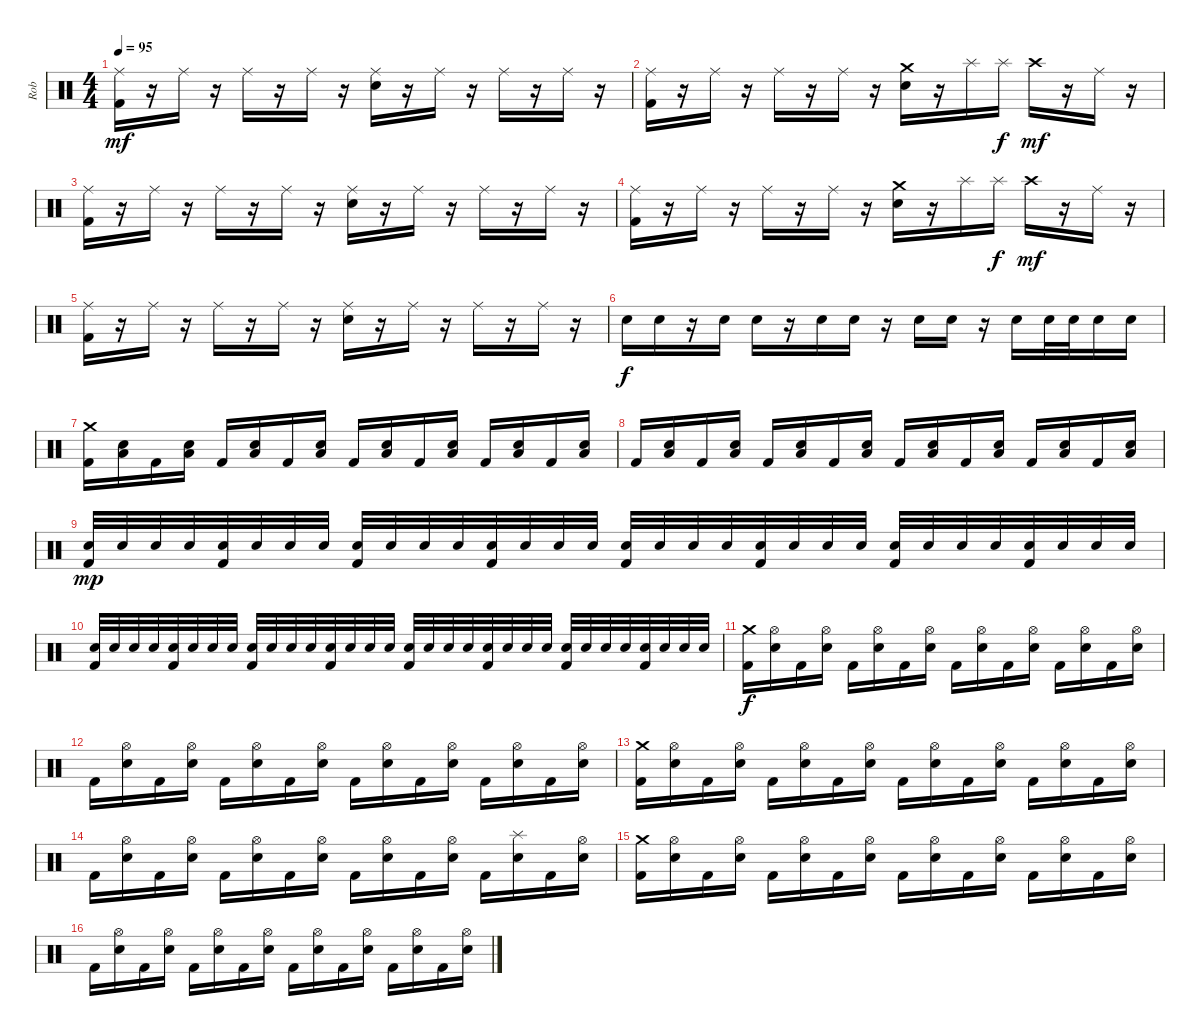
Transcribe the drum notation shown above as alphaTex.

\track ("Rob" "Rob") {instrument percussion}
\staff {score}
\articulation defaults
\ts (4 4)
\tempo 95
\clef neutral
\ks c
("Ride (middle)" "Kick (hit) 2").16{dy mf} r.16 "Ride (middle)".16 r.16 "Ride (middle)".16 r.16 "Ride (middle)".16 r.16 ("Ride (middle)" "Electric Snare (hit)").16 r.16 "Ride (middle)".16 r.16 "Ride (middle)".16 r.16 "Ride (middle)".16 r.16 |
("Ride (middle)" "Kick (hit) 2").16 r.16 "Ride (middle)".16 r.16 "Ride (middle)".16 r.16 "Ride (middle)".16 r.16 ("Crash medium (hit)" "Electric Snare (hit)").16 r.16 "Splash (hit)".16 "Splash (hit)".16{dy f} "Crash high (hit)".16{dy mf} r.16 "Ride (middle)".16 r.16 |
("Ride (middle)" "Kick (hit) 2").16 r.16 "Ride (middle)".16 r.16 "Ride (middle)".16 r.16 "Ride (middle)".16 r.16 ("Ride (middle)" "Electric Snare (hit)").16 r.16 "Ride (middle)".16 r.16 "Ride (middle)".16 r.16 "Ride (middle)".16 r.16 |
("Ride (middle)" "Kick (hit) 2").16 r.16 "Ride (middle)".16 r.16 "Ride (middle)".16 r.16 "Ride (middle)".16 r.16 ("Crash medium (hit)" "Electric Snare (hit)").16 r.16 "Splash (hit)".16 "Splash (hit)".16{dy f} "Crash high (hit)".16{dy mf} r.16 "Ride (middle)".16 r.16 |
("Ride (middle)" "Kick (hit) 2").16 r.16 "Ride (middle)".16 r.16 "Ride (middle)".16 r.16 "Ride (middle)".16 r.16 ("Ride (middle)" "Electric Snare (hit)").16 r.16 "Ride (middle)".16 r.16 "Ride (middle)".16 r.16 "Ride (middle)".16 r.16 |
"Electric Snare (hit)".16{dy f} "Electric Snare (hit)".16 r.16 "Electric Snare (hit)".16 "Electric Snare (hit)".16 r.16 "Electric Snare (hit)".16 "Electric Snare (hit)".16 r.16 "Electric Snare (hit)".16 "Electric Snare (hit)".16 r.16 "Electric Snare (hit)".16 "Electric Snare (hit)".32 "Electric Snare (hit)".32 "Electric Snare (hit)".16 "Electric Snare (hit)".16 |
("Crash medium (hit)" "Kick (hit) 2").16 ("Low Tom (hit)" "Electric Snare (hit)").16 "Kick (hit) 2".16 ("Low Tom (hit)" "Electric Snare (hit)").16 "Kick (hit) 2".16 ("Low Tom (hit)" "Electric Snare (hit)").16 "Kick (hit) 2".16 ("Low Tom (hit)" "Electric Snare (hit)").16 "Kick (hit) 2".16 ("Low Tom (hit)" "Electric Snare (hit)").16 "Kick (hit) 2".16 ("Low Tom (hit)" "Electric Snare (hit)").16 "Kick (hit) 2".16 ("Low Tom (hit)" "Electric Snare (hit)").16 "Kick (hit) 2".16 ("Low Tom (hit)" "Electric Snare (hit)").16 |
"Kick (hit) 2".16 ("Low Tom (hit)" "Electric Snare (hit)").16 "Kick (hit) 2".16 ("Low Tom (hit)" "Electric Snare (hit)").16 "Kick (hit) 2".16 ("Low Tom (hit)" "Electric Snare (hit)").16 "Kick (hit) 2".16 ("Low Tom (hit)" "Electric Snare (hit)").16 "Kick (hit) 2".16 ("Low Tom (hit)" "Electric Snare (hit)").16 "Kick (hit) 2".16 ("Low Tom (hit)" "Electric Snare (hit)").16 "Kick (hit) 2".16 ("Low Tom (hit)" "Electric Snare (hit)").16 "Kick (hit) 2".16 ("Low Tom (hit)" "Electric Snare (hit)").16 |
("Electric Snare (hit)" "Kick (hit) 2").32{dy mp} "Electric Snare (hit)".32 "Electric Snare (hit)".32 "Electric Snare (hit)".32 ("Electric Snare (hit)" "Kick (hit) 2").32 "Electric Snare (hit)".32 "Electric Snare (hit)".32 "Electric Snare (hit)".32 ("Electric Snare (hit)" "Kick (hit) 2").32 "Electric Snare (hit)".32 "Electric Snare (hit)".32 "Electric Snare (hit)".32 ("Electric Snare (hit)" "Kick (hit) 2").32 "Electric Snare (hit)".32 "Electric Snare (hit)".32 "Electric Snare (hit)".32 ("Electric Snare (hit)" "Kick (hit) 2").32 "Electric Snare (hit)".32 "Electric Snare (hit)".32 "Electric Snare (hit)".32 ("Electric Snare (hit)" "Kick (hit) 2").32 "Electric Snare (hit)".32 "Electric Snare (hit)".32 "Electric Snare (hit)".32 ("Electric Snare (hit)" "Kick (hit) 2").32 "Electric Snare (hit)".32 "Electric Snare (hit)".32 "Electric Snare (hit)".32 ("Electric Snare (hit)" "Kick (hit) 2").32 "Electric Snare (hit)".32 "Electric Snare (hit)".32 "Electric Snare (hit)".32 |
("Electric Snare (hit)" "Kick (hit) 2").32 "Electric Snare (hit)".32 "Electric Snare (hit)".32 "Electric Snare (hit)".32 ("Electric Snare (hit)" "Kick (hit) 2").32 "Electric Snare (hit)".32 "Electric Snare (hit)".32 "Electric Snare (hit)".32 ("Electric Snare (hit)" "Kick (hit) 2").32 "Electric Snare (hit)".32 "Electric Snare (hit)".32 "Electric Snare (hit)".32 ("Electric Snare (hit)" "Kick (hit) 2").32 "Electric Snare (hit)".32 "Electric Snare (hit)".32 "Electric Snare (hit)".32 ("Electric Snare (hit)" "Kick (hit) 2").32 "Electric Snare (hit)".32 "Electric Snare (hit)".32 "Electric Snare (hit)".32 ("Electric Snare (hit)" "Kick (hit) 2").32 "Electric Snare (hit)".32 "Electric Snare (hit)".32 "Electric Snare (hit)".32 ("Electric Snare (hit)" "Kick (hit) 2").32 "Electric Snare (hit)".32 "Electric Snare (hit)".32 "Electric Snare (hit)".32 ("Electric Snare (hit)" "Kick (hit) 2").32 "Electric Snare (hit)".32 "Electric Snare (hit)".32 "Electric Snare (hit)".32 |
("Crash medium (hit)" "Kick (hit) 2").16{dy f} ("Hi-Hat (open)" "Electric Snare (hit)").16 "Kick (hit) 2".16 ("Hi-Hat (open)" "Electric Snare (hit)").16 "Kick (hit) 2".16 ("Hi-Hat (open)" "Electric Snare (hit)").16 "Kick (hit) 2".16 ("Hi-Hat (open)" "Electric Snare (hit)").16 "Kick (hit) 2".16 ("Hi-Hat (open)" "Electric Snare (hit)").16 "Kick (hit) 2".16 ("Hi-Hat (open)" "Electric Snare (hit)").16 "Kick (hit) 2".16 ("Hi-Hat (open)" "Electric Snare (hit)").16 "Kick (hit) 2".16 ("Hi-Hat (open)" "Electric Snare (hit)").16 |
"Kick (hit) 2".16 ("Hi-Hat (open)" "Electric Snare (hit)").16 "Kick (hit) 2".16 ("Hi-Hat (open)" "Electric Snare (hit)").16 "Kick (hit) 2".16 ("Hi-Hat (open)" "Electric Snare (hit)").16 "Kick (hit) 2".16 ("Hi-Hat (open)" "Electric Snare (hit)").16 "Kick (hit) 2".16 ("Hi-Hat (open)" "Electric Snare (hit)").16 "Kick (hit) 2".16 ("Hi-Hat (open)" "Electric Snare (hit)").16 "Kick (hit) 2".16 ("Hi-Hat (open)" "Electric Snare (hit)").16 "Kick (hit) 2".16 ("Hi-Hat (open)" "Electric Snare (hit)").16 |
("Crash medium (hit)" "Kick (hit) 2").16 ("Hi-Hat (open)" "Electric Snare (hit)").16 "Kick (hit) 2".16 ("Hi-Hat (open)" "Electric Snare (hit)").16 "Kick (hit) 2".16 ("Hi-Hat (open)" "Electric Snare (hit)").16 "Kick (hit) 2".16 ("Hi-Hat (open)" "Electric Snare (hit)").16 "Kick (hit) 2".16 ("Hi-Hat (open)" "Electric Snare (hit)").16 "Kick (hit) 2".16 ("Hi-Hat (open)" "Electric Snare (hit)").16 "Kick (hit) 2".16 ("Hi-Hat (open)" "Electric Snare (hit)").16 "Kick (hit) 2".16 ("Hi-Hat (open)" "Electric Snare (hit)").16 |
"Kick (hit) 2".16 ("Hi-Hat (open)" "Electric Snare (hit)").16 "Kick (hit) 2".16 ("Hi-Hat (open)" "Electric Snare (hit)").16 "Kick (hit) 2".16 ("Hi-Hat (open)" "Electric Snare (hit)").16 "Kick (hit) 2".16 ("Hi-Hat (open)" "Electric Snare (hit)").16 "Kick (hit) 2".16 ("Hi-Hat (open)" "Electric Snare (hit)").16 "Kick (hit) 2".16 ("Hi-Hat (open)" "Electric Snare (hit)").16 "Kick (hit) 2".16 ("Splash (hit)" "Electric Snare (hit)").16 "Kick (hit) 2".16 ("Hi-Hat (open)" "Electric Snare (hit)").16 |
("Crash medium (hit)" "Kick (hit) 2").16 ("Hi-Hat (open)" "Electric Snare (hit)").16 "Kick (hit) 2".16 ("Hi-Hat (open)" "Electric Snare (hit)").16 "Kick (hit) 2".16 ("Hi-Hat (open)" "Electric Snare (hit)").16 "Kick (hit) 2".16 ("Hi-Hat (open)" "Electric Snare (hit)").16 "Kick (hit) 2".16 ("Hi-Hat (open)" "Electric Snare (hit)").16 "Kick (hit) 2".16 ("Hi-Hat (open)" "Electric Snare (hit)").16 "Kick (hit) 2".16 ("Hi-Hat (open)" "Electric Snare (hit)").16 "Kick (hit) 2".16 ("Hi-Hat (open)" "Electric Snare (hit)").16 |
"Kick (hit) 2".16 ("Hi-Hat (open)" "Electric Snare (hit)").16 "Kick (hit) 2".16 ("Hi-Hat (open)" "Electric Snare (hit)").16 "Kick (hit) 2".16 ("Hi-Hat (open)" "Electric Snare (hit)").16 "Kick (hit) 2".16 ("Hi-Hat (open)" "Electric Snare (hit)").16 "Kick (hit) 2".16 ("Hi-Hat (open)" "Electric Snare (hit)").16 "Kick (hit) 2".16 ("Hi-Hat (open)" "Electric Snare (hit)").16 "Kick (hit) 2".16 ("Hi-Hat (open)" "Electric Snare (hit)").16 "Kick (hit) 2".16 ("Hi-Hat (open)" "Electric Snare (hit)").16
